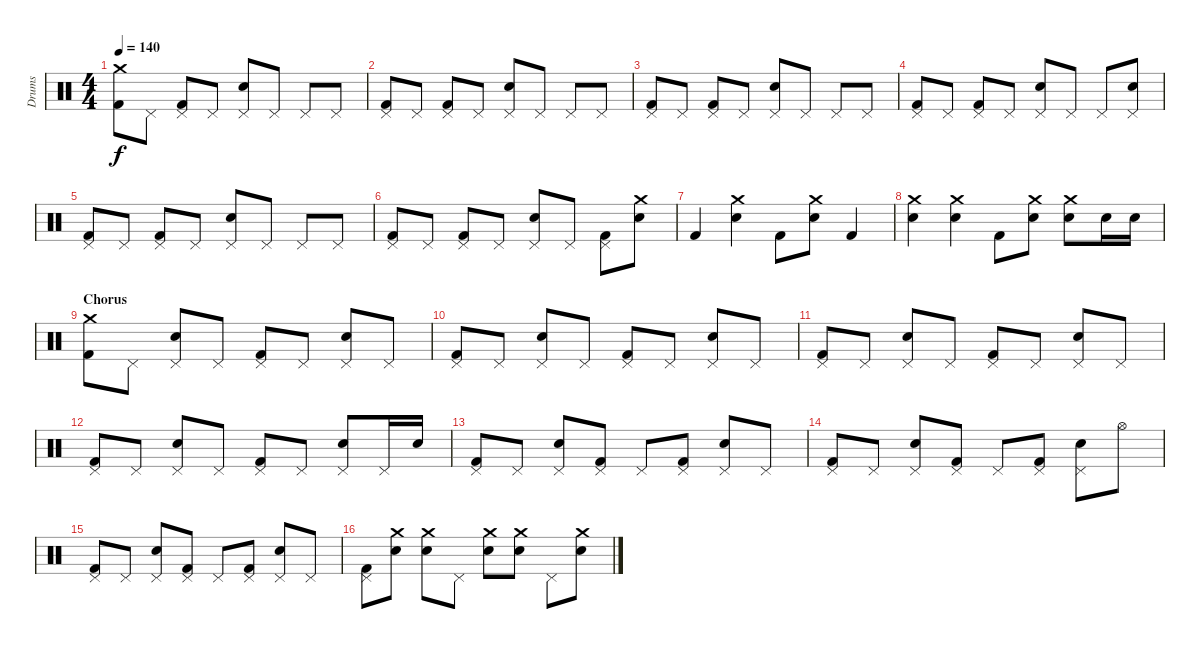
\track ("Drums" "Drums") {instrument percussion}
\staff {score}
\articulation defaults
\ts (4 4)
\tempo 140
\clef neutral
\ks c
("Crash medium (hit)" "Kick (hit) 2").8{dy f} "Pedal Hi-Hat (hit)".8 ("Pedal Hi-Hat (hit)" "Kick (hit) 2").8 "Pedal Hi-Hat (hit)".8 ("Pedal Hi-Hat (hit)" "Electric Snare (hit)").8 "Pedal Hi-Hat (hit)".8 "Pedal Hi-Hat (hit)".8 "Pedal Hi-Hat (hit)".8 |
("Pedal Hi-Hat (hit)" "Kick (hit) 2").8 "Pedal Hi-Hat (hit)".8 ("Pedal Hi-Hat (hit)" "Kick (hit) 2").8 "Pedal Hi-Hat (hit)".8 ("Pedal Hi-Hat (hit)" "Electric Snare (hit)").8 "Pedal Hi-Hat (hit)".8 "Pedal Hi-Hat (hit)".8 "Pedal Hi-Hat (hit)".8 |
("Pedal Hi-Hat (hit)" "Kick (hit) 2").8 "Pedal Hi-Hat (hit)".8 ("Pedal Hi-Hat (hit)" "Kick (hit) 2").8 "Pedal Hi-Hat (hit)".8 ("Pedal Hi-Hat (hit)" "Electric Snare (hit)").8 "Pedal Hi-Hat (hit)".8 "Pedal Hi-Hat (hit)".8 "Pedal Hi-Hat (hit)".8 |
("Pedal Hi-Hat (hit)" "Kick (hit) 2").8 "Pedal Hi-Hat (hit)".8 ("Pedal Hi-Hat (hit)" "Kick (hit) 2").8 "Pedal Hi-Hat (hit)".8 ("Pedal Hi-Hat (hit)" "Electric Snare (hit)").8 "Pedal Hi-Hat (hit)".8 "Pedal Hi-Hat (hit)".8 ("Pedal Hi-Hat (hit)" "Electric Snare (hit)").8 |
("Pedal Hi-Hat (hit)" "Kick (hit) 2").8 "Pedal Hi-Hat (hit)".8 ("Pedal Hi-Hat (hit)" "Kick (hit) 2").8 "Pedal Hi-Hat (hit)".8 ("Pedal Hi-Hat (hit)" "Electric Snare (hit)").8 "Pedal Hi-Hat (hit)".8 "Pedal Hi-Hat (hit)".8 "Pedal Hi-Hat (hit)".8 |
("Pedal Hi-Hat (hit)" "Kick (hit) 2").8 "Pedal Hi-Hat (hit)".8 ("Pedal Hi-Hat (hit)" "Kick (hit) 2").8 "Pedal Hi-Hat (hit)".8 ("Pedal Hi-Hat (hit)" "Electric Snare (hit)").8 "Pedal Hi-Hat (hit)".8 ("Pedal Hi-Hat (hit)" "Kick (hit) 2").8 ("Crash medium (hit)" "Electric Snare (hit)").8 |
"Kick (hit) 2".4 ("Crash medium (hit)" "Electric Snare (hit)").4 "Kick (hit) 2".8 ("Crash medium (hit)" "Electric Snare (hit)").8 "Kick (hit) 2".4 |
("Crash medium (hit)" "Electric Snare (hit)").4 ("Crash medium (hit)" "Electric Snare (hit)").4 "Kick (hit) 2".8 ("Crash medium (hit)" "Electric Snare (hit)").8 ("Crash medium (hit)" "Electric Snare (hit)").8 "Electric Snare (hit)".16 "Electric Snare (hit)".16 |
\section ("" "Chorus")
("Crash medium (hit)" "Kick (hit) 2").8 "Pedal Hi-Hat (hit)".8 ("Pedal Hi-Hat (hit)" "Electric Snare (hit)").8 "Pedal Hi-Hat (hit)".8 ("Pedal Hi-Hat (hit)" "Kick (hit) 2").8 "Pedal Hi-Hat (hit)".8 ("Pedal Hi-Hat (hit)" "Electric Snare (hit)").8 "Pedal Hi-Hat (hit)".8 |
("Pedal Hi-Hat (hit)" "Kick (hit) 2").8 "Pedal Hi-Hat (hit)".8 ("Pedal Hi-Hat (hit)" "Electric Snare (hit)").8 "Pedal Hi-Hat (hit)".8 ("Pedal Hi-Hat (hit)" "Kick (hit) 2").8 "Pedal Hi-Hat (hit)".8 ("Pedal Hi-Hat (hit)" "Electric Snare (hit)").8 "Pedal Hi-Hat (hit)".8 |
("Pedal Hi-Hat (hit)" "Kick (hit) 2").8 "Pedal Hi-Hat (hit)".8 ("Pedal Hi-Hat (hit)" "Electric Snare (hit)").8 "Pedal Hi-Hat (hit)".8 ("Pedal Hi-Hat (hit)" "Kick (hit) 2").8 "Pedal Hi-Hat (hit)".8 ("Pedal Hi-Hat (hit)" "Electric Snare (hit)").8 "Pedal Hi-Hat (hit)".8 |
("Pedal Hi-Hat (hit)" "Kick (hit) 2").8 "Pedal Hi-Hat (hit)".8 ("Pedal Hi-Hat (hit)" "Electric Snare (hit)").8 "Pedal Hi-Hat (hit)".8 ("Pedal Hi-Hat (hit)" "Kick (hit) 2").8 "Pedal Hi-Hat (hit)".8 ("Pedal Hi-Hat (hit)" "Electric Snare (hit)").8 "Pedal Hi-Hat (hit)".16 "Electric Snare (hit)".16 |
("Pedal Hi-Hat (hit)" "Kick (hit) 2").8 "Pedal Hi-Hat (hit)".8 ("Pedal Hi-Hat (hit)" "Electric Snare (hit)").8 ("Pedal Hi-Hat (hit)" "Kick (hit) 2").8 "Pedal Hi-Hat (hit)".8 ("Pedal Hi-Hat (hit)" "Kick (hit) 2").8 ("Pedal Hi-Hat (hit)" "Electric Snare (hit)").8 "Pedal Hi-Hat (hit)".8 |
("Pedal Hi-Hat (hit)" "Kick (hit) 2").8 "Pedal Hi-Hat (hit)".8 ("Pedal Hi-Hat (hit)" "Electric Snare (hit)").8 ("Pedal Hi-Hat (hit)" "Kick (hit) 2").8 "Pedal Hi-Hat (hit)".8 ("Pedal Hi-Hat (hit)" "Kick (hit) 2").8 ("Pedal Hi-Hat (hit)" "Electric Snare (hit)").8 "Hi-Hat (open)".8 |
("Pedal Hi-Hat (hit)" "Kick (hit) 2").8 "Pedal Hi-Hat (hit)".8 ("Pedal Hi-Hat (hit)" "Electric Snare (hit)").8 ("Pedal Hi-Hat (hit)" "Kick (hit) 2").8 "Pedal Hi-Hat (hit)".8 ("Pedal Hi-Hat (hit)" "Kick (hit) 2").8 ("Pedal Hi-Hat (hit)" "Electric Snare (hit)").8 "Pedal Hi-Hat (hit)".8 |
("Pedal Hi-Hat (hit)" "Kick (hit) 2").8 ("Crash medium (hit)" "Electric Snare (hit)").8 ("Crash medium (hit)" "Electric Snare (hit)").8 "Pedal Hi-Hat (hit)".8 ("Crash medium (hit)" "Electric Snare (hit)").8 ("Crash medium (hit)" "Electric Snare (hit)").8 "Pedal Hi-Hat (hit)".8 ("Crash medium (hit)" "Electric Snare (hit)").8
